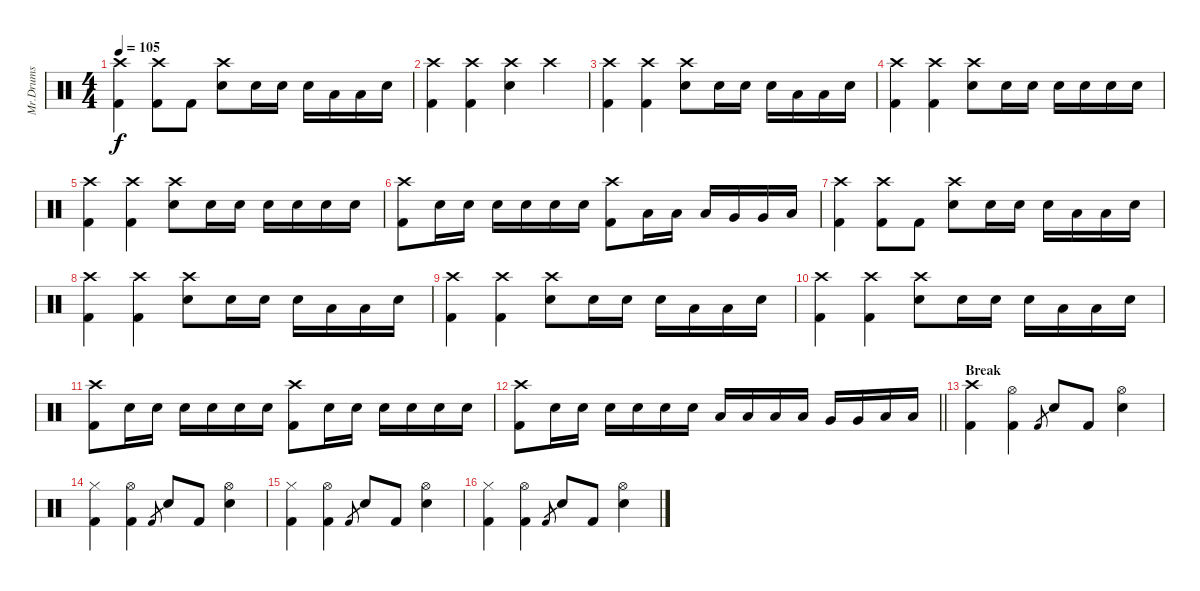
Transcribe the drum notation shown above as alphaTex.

\track ("Mr.Drums" "Mr.Drums") {instrument percussion}
\staff {score}
\articulation defaults
\ts (4 4)
\tempo 105
\clef neutral
\ks c
("Crash high (hit)" "Kick (hit) 2").4{dy f} ("Crash high (hit)" "Kick (hit) 2").8 "Kick (hit) 2".8 ("Crash high (hit)" "Electric Snare (hit)").8 "Electric Snare (hit)".16 "Electric Snare (hit)".16 "Electric Snare (hit)".16 "Low Tom (hit)".16 "Low Tom (hit)".16 "Electric Snare (hit)".16 |
("Crash high (hit)" "Kick (hit) 2").4 ("Crash high (hit)" "Kick (hit) 2").4 ("Crash high (hit)" "Electric Snare (hit)").4 "Crash high (hit)".4 |
("Crash high (hit)" "Kick (hit) 2").4 ("Crash high (hit)" "Kick (hit) 2").4 ("Crash high (hit)" "Electric Snare (hit)").8 "Electric Snare (hit)".16 "Electric Snare (hit)".16 "Electric Snare (hit)".16 "Low Tom (hit)".16 "Low Tom (hit)".16 "Electric Snare (hit)".16 |
("Crash high (hit)" "Kick (hit) 2").4 ("Crash high (hit)" "Kick (hit) 2").4 ("Crash high (hit)" "Electric Snare (hit)").8 "Electric Snare (hit)".16 "Electric Snare (hit)".16 "Electric Snare (hit)".16 "Electric Snare (hit)".16 "Electric Snare (hit)".16 "Electric Snare (hit)".16 |
("Crash high (hit)" "Kick (hit) 2").4 ("Crash high (hit)" "Kick (hit) 2").4 ("Crash high (hit)" "Electric Snare (hit)").8 "Electric Snare (hit)".16 "Electric Snare (hit)".16 "Electric Snare (hit)".16 "Electric Snare (hit)".16 "Electric Snare (hit)".16 "Electric Snare (hit)".16 |
("Crash high (hit)" "Kick (hit) 2").8 "Electric Snare (hit)".16 "Electric Snare (hit)".16 "Electric Snare (hit)".16 "Electric Snare (hit)".16 "Electric Snare (hit)".16 "Electric Snare (hit)".16 ("Crash high (hit)" "Kick (hit) 2").8 "Low Tom (hit)".16 "Low Tom (hit)".16 "Low Tom (hit)".16 "Very Low Tom (hit)".16 "Very Low Tom (hit)".16 "Low Floor Tom (hit)".16 |
("Crash high (hit)" "Kick (hit) 2").4 ("Crash high (hit)" "Kick (hit) 2").8 "Kick (hit) 2".8 ("Crash high (hit)" "Electric Snare (hit)").8 "Electric Snare (hit)".16 "Electric Snare (hit)".16 "Electric Snare (hit)".16 "Low Tom (hit)".16 "Low Tom (hit)".16 "Electric Snare (hit)".16 |
("Crash high (hit)" "Kick (hit) 2").4 ("Crash high (hit)" "Kick (hit) 2").4 ("Crash high (hit)" "Electric Snare (hit)").8 "Electric Snare (hit)".16 "Electric Snare (hit)".16 "Electric Snare (hit)".16 "Low Tom (hit)".16 "Low Tom (hit)".16 "Electric Snare (hit)".16 |
("Crash high (hit)" "Kick (hit) 2").4 ("Crash high (hit)" "Kick (hit) 2").4 ("Crash high (hit)" "Electric Snare (hit)").8 "Electric Snare (hit)".16 "Electric Snare (hit)".16 "Electric Snare (hit)".16 "Low Tom (hit)".16 "Low Tom (hit)".16 "Electric Snare (hit)".16 |
("Crash high (hit)" "Kick (hit) 2").4 ("Crash high (hit)" "Kick (hit) 2").4 ("Crash high (hit)" "Electric Snare (hit)").8 "Electric Snare (hit)".16 "Electric Snare (hit)".16 "Electric Snare (hit)".16 "Low Tom (hit)".16 "Low Tom (hit)".16 "Electric Snare (hit)".16 |
("Crash high (hit)" "Kick (hit) 2").8 "Electric Snare (hit)".16 "Electric Snare (hit)".16 "Electric Snare (hit)".16 "Electric Snare (hit)".16 "Electric Snare (hit)".16 "Electric Snare (hit)".16 ("Crash high (hit)" "Kick (hit) 2").8 "Electric Snare (hit)".16 "Electric Snare (hit)".16 "Electric Snare (hit)".16 "Electric Snare (hit)".16 "Electric Snare (hit)".16 "Electric Snare (hit)".16 |
\barLineRight lightlight
("Crash high (hit)" "Kick (hit) 2").8 "Electric Snare (hit)".16 "Electric Snare (hit)".16 "Electric Snare (hit)".16 "Electric Snare (hit)".16 "Electric Snare (hit)".16 "Electric Snare (hit)".16 "Low Tom (hit)".16 "Low Tom (hit)".16 "Low Tom (hit)".16 "Low Tom (hit)".16 "Very Low Tom (hit)".16 "Very Low Tom (hit)".16 "Low Floor Tom (hit)".16 "Low Floor Tom (hit)".16 |
\section ("" "Break")
("Crash high (hit)" "Kick (hit) 2").4 ("Hi-Hat (open)" "Kick (hit) 2").4 "Kick (hit) 2".8{gr} "Electric Snare (hit)".8 "Kick (hit) 2".8 ("Hi-Hat (open)" "Electric Snare (hit)").4 |
("Hi-Hat (closed)" "Kick (hit) 2").4 ("Hi-Hat (open)" "Kick (hit) 2").4 "Kick (hit) 2".8{gr} "Electric Snare (hit)".8 "Kick (hit) 2".8 ("Hi-Hat (open)" "Electric Snare (hit)").4 |
("Hi-Hat (closed)" "Kick (hit) 2").4 ("Hi-Hat (open)" "Kick (hit) 2").4 "Kick (hit) 2".8{gr} "Electric Snare (hit)".8 "Kick (hit) 2".8 ("Hi-Hat (open)" "Electric Snare (hit)").4 |
("Hi-Hat (closed)" "Kick (hit) 2").4 ("Hi-Hat (open)" "Kick (hit) 2").4 "Kick (hit) 2".8{gr} "Electric Snare (hit)".8 "Kick (hit) 2".8 ("Hi-Hat (open)" "Electric Snare (hit)").4
